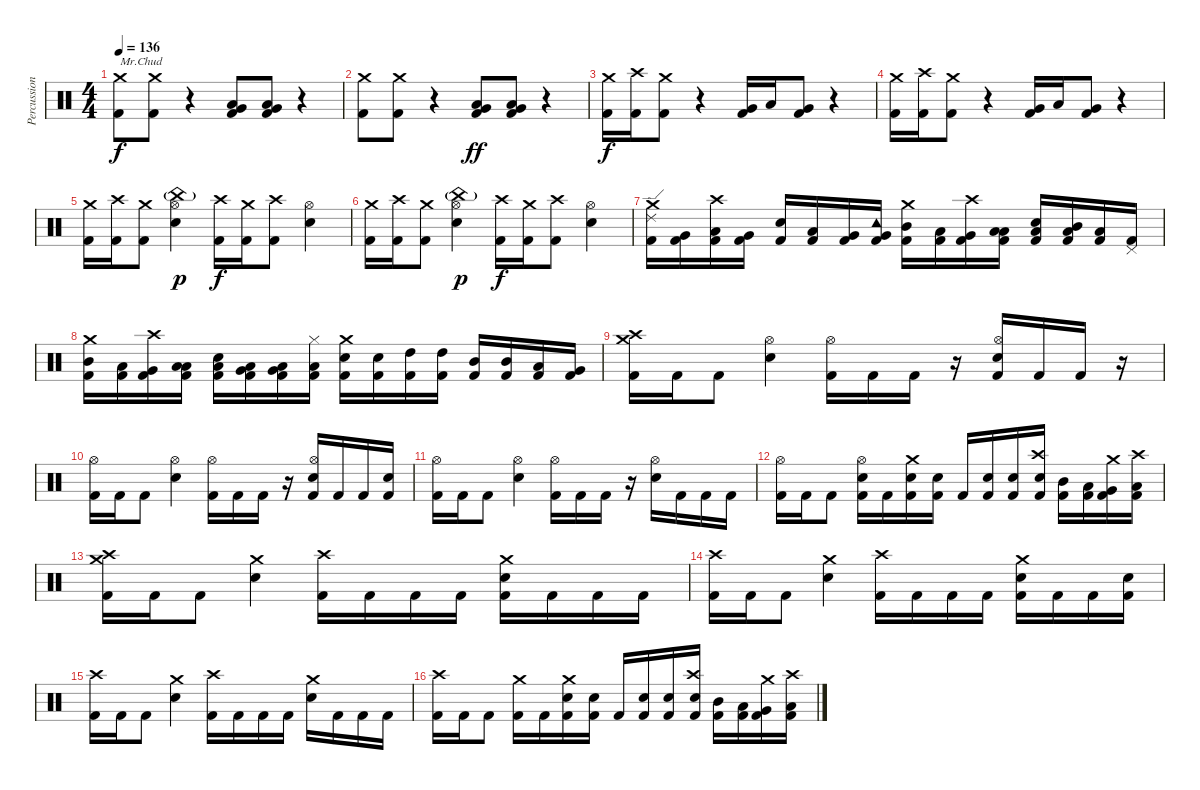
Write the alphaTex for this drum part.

\track ("Percussion" "Percussion") {instrument percussion}
\staff {score}
\articulation defaults
\ts (4 4)
\tempo 136
\clef neutral
\ks c
("Crash medium (hit)" "Kick (hit) 2").8{txt "Mr.Chud" dy f} ("Crash medium (hit)" "Kick (hit) 2").8 r.4 ("Low Tom (hit)" "Very Low Tom (hit)" "Kick (hit) 2").8 ("Low Tom (hit)" "Very Low Tom (hit)" "Kick (hit) 2").8 r.4 |
("Crash medium (hit)" "Kick (hit) 2").8 ("Crash medium (hit)" "Kick (hit) 2").8 r.4 ("Very Low Tom (hit)" "Low Floor Tom (hit)" "Kick (hit) 2").8{dy ff} ("Very Low Tom (hit)" "Low Floor Tom (hit)" "Kick (hit) 2").8 r.4 |
("Crash medium (hit)" "Kick (hit) 2").16{dy f} ("Crash high (hit)" "Kick (hit) 2").16 ("Crash medium (hit)" "Kick (hit) 2").8 r.4 ("Very Low Tom (hit)" "Kick (hit) 2").16 "Low Tom (hit)".16 ("Very Low Tom (hit)" "Kick (hit) 2").8 r.4 |
("Crash medium (hit)" "Kick (hit) 2").16 ("Crash high (hit)" "Kick (hit) 2").16 ("Crash medium (hit)" "Kick (hit) 2").8 r.4 ("Very Low Tom (hit)" "Kick (hit) 2").16 "Low Floor Tom (hit)".16 ("Very Low Tom (hit)" "Kick (hit) 2").8 r.4 |
("Crash medium (hit)" "Kick (hit) 2").16 ("Crash high (hit)" "Kick (hit) 2").16 ("Crash medium (hit)" "Kick (hit) 2").8 ("Hi-Hat (open)" "China (hit)"{g} "Electric Snare (hit)").4{dy p} ("Crash high (hit)" "Kick (hit) 2").16{dy f} ("Crash medium (hit)" "Kick (hit) 2").16 ("Crash high (hit)" "Kick (hit) 2").8 ("Hi-Hat (open)" "Electric Snare (hit)").4 |
("Crash medium (hit)" "Kick (hit) 2").16 ("Crash high (hit)" "Kick (hit) 2").16 ("Crash medium (hit)" "Kick (hit) 2").8 ("Hi-Hat (open)" "China (hit)"{g} "Electric Snare (hit)").4{dy p} ("Crash high (hit)" "Kick (hit) 2").16{dy f} ("Crash medium (hit)" "Kick (hit) 2").16 ("Crash high (hit)" "Kick (hit) 2").8 ("Hi-Hat (open)" "Electric Snare (hit)").4 |
("Crash medium (hit)" "Ride (edge) 2" "Kick (hit) 2").16 ("Very Low Tom (hit)" "Kick (hit) 2").16 ("Crash high (hit)" "Low Tom (hit)" "Kick (hit) 2").16 ("Very Low Tom (hit)" "Kick (hit) 2").16 ("Electric Snare (hit)" "Kick (hit) 2").16 ("Low Tom (hit)" "Kick (hit) 2").16 ("Very Low Tom (hit)" "Kick (hit) 2").16 ("Tambourine (hit)" "Very Low Tom (hit)" "Kick (hit) 2").16 ("Crash medium (hit)" "Mid Tom (hit)" "Kick (hit) 2").16 ("Low Tom (hit)" "Kick (hit) 2").16 ("Crash high (hit)" "Very Low Tom (hit)" "Kick (hit) 2").16 ("Low Floor Tom (hit)" "Low Tom (hit)" "Kick (hit) 2").16 ("Low Floor Tom (hit)" "Electric Snare (hit)" "Kick (hit) 2").16 ("Low Floor Tom (hit)" "Mid Tom (hit)" "Kick (hit) 2").16 ("Low Floor Tom (hit)" "Kick (hit) 2").16 ("Pedal Hi-Hat (hit)" "Kick (hit) 2").16 |
("Crash medium (hit)" "Mid Tom (hit)" "Kick (hit) 2").16 ("Low Tom (hit)" "Kick (hit) 2").16 ("Crash high (hit)" "Very Low Tom (hit)" "Kick (hit) 2").16 ("Low Floor Tom (hit)" "Low Tom (hit)" "Kick (hit) 2").16 ("Low Floor Tom (hit)" "Electric Snare (hit)" "Kick (hit) 2").16 ("Low Floor Tom (hit)" "Very Low Tom (hit)" "Kick (hit) 2").16 ("Low Floor Tom (hit)" "Very Low Tom (hit)" "Kick (hit) 2").16 ("Hi-Hat (closed)" "Low Floor Tom (hit)" "Kick (hit) 2").16 ("Crash medium (hit)" "Electric Snare (hit)" "Kick (hit) 2").16 ("Electric Snare (hit)" "Kick (hit) 2").16 ("High Tom (hit)" "Kick (hit) 2").16 ("High Tom (hit)" "Kick (hit) 2").16 ("Mid Tom (hit)" "Kick (hit) 2").16 ("Mid Tom (hit)" "Kick (hit) 2").16 ("Low Tom (hit)" "Kick (hit) 2").16 ("Very Low Tom (hit)" "Kick (hit) 2").16 |
("Crash medium (hit)" "Crash high (hit)" "Kick (hit) 2").16 "Kick (hit) 2".16 "Kick (hit) 2".8 ("Hi-Hat (open)" "Electric Snare (hit)").4 ("Hi-Hat (open)" "Kick (hit) 2").16 "Kick (hit) 2".16 "Kick (hit) 2".16 r.16 ("Hi-Hat (open)" "Electric Snare (hit)" "Kick (hit) 2").16 "Kick (hit) 2".16 "Kick (hit) 2".16 r.16 |
("Hi-Hat (open)" "Kick (hit) 2").16 "Kick (hit) 2".16 "Kick (hit) 2".8 ("Hi-Hat (open)" "Electric Snare (hit)").4 ("Hi-Hat (open)" "Kick (hit) 2").16 "Kick (hit) 2".16 "Kick (hit) 2".16 r.16 ("Hi-Hat (open)" "Electric Snare (hit)" "Kick (hit) 2").16 "Kick (hit) 2".16 "Kick (hit) 2".16 ("Electric Snare (hit)" "Kick (hit) 2").16 |
("Hi-Hat (open)" "Kick (hit) 2").16 "Kick (hit) 2".16 "Kick (hit) 2".8 ("Hi-Hat (open)" "Electric Snare (hit)").4 ("Hi-Hat (open)" "Kick (hit) 2").16 "Kick (hit) 2".16 "Kick (hit) 2".16 r.16 ("Hi-Hat (open)" "Electric Snare (hit)").16 "Kick (hit) 2".16 "Kick (hit) 2".16 "Kick (hit) 2".16 |
("Hi-Hat (open)" "Kick (hit) 2").16 "Kick (hit) 2".16 "Kick (hit) 2".8 ("Hi-Hat (open)" "Electric Snare (hit)" "Kick (hit) 2").16 "Kick (hit) 2".16 ("Crash medium (hit)" "Electric Snare (hit)" "Kick (hit) 2").16 ("Electric Snare (hit)" "Kick (hit) 2").16 "Kick (hit) 2".16 ("Snare (hit) 2" "Kick (hit) 2").16 ("Electric Snare (hit)" "Kick (hit) 2").16 ("Crash high (hit)" "Electric Snare (hit)" "Kick (hit) 2").16 ("Mid Tom (hit)" "Kick (hit) 2").16 ("Low Tom (hit)" "Kick (hit) 2").16 ("Crash medium (hit)" "Very Low Tom (hit)" "Kick (hit) 2").16 ("Crash high (hit)" "Low Floor Tom (hit)" "Kick (hit) 2").16 |
("Crash medium (hit)" "Crash high (hit)" "Kick (hit) 2").16 "Kick (hit) 2".16 "Kick (hit) 2".8 ("Crash medium (hit)" "Electric Snare (hit)").4 ("Crash high (hit)" "Kick (hit) 2").16 "Kick (hit) 2".16 "Kick (hit) 2".16 "Kick (hit) 2".16 ("Crash medium (hit)" "Electric Snare (hit)" "Kick (hit) 2").16 "Kick (hit) 2".16 "Kick (hit) 2".16 "Kick (hit) 2".16 |
("Crash high (hit)" "Kick (hit) 2").16 "Kick (hit) 2".16 "Kick (hit) 2".8 ("Crash medium (hit)" "Electric Snare (hit)").4 ("Crash high (hit)" "Kick (hit) 2").16 "Kick (hit) 2".16 "Kick (hit) 2".16 "Kick (hit) 2".16 ("Crash medium (hit)" "Electric Snare (hit)" "Kick (hit) 2").16 "Kick (hit) 2".16 "Kick (hit) 2".16 ("Electric Snare (hit)" "Kick (hit) 2").16 |
("Crash high (hit)" "Kick (hit) 2").16 "Kick (hit) 2".16 "Kick (hit) 2".8 ("Crash medium (hit)" "Electric Snare (hit)").4 ("Crash high (hit)" "Kick (hit) 2").16 "Kick (hit) 2".16 "Kick (hit) 2".16 "Kick (hit) 2".16 ("Crash medium (hit)" "Electric Snare (hit)").16 "Kick (hit) 2".16 "Kick (hit) 2".16 "Kick (hit) 2".16 |
("Crash high (hit)" "Kick (hit) 2").16 "Kick (hit) 2".16 "Kick (hit) 2".8 ("Crash medium (hit)" "Kick (hit) 2").16 "Kick (hit) 2".16 ("Crash medium (hit)" "Electric Snare (hit)" "Kick (hit) 2").16 ("Electric Snare (hit)" "Kick (hit) 2").16 "Kick (hit) 2".16 ("Snare (hit) 2" "Kick (hit) 2").16 ("Electric Snare (hit)" "Kick (hit) 2").16 ("Crash high (hit)" "Electric Snare (hit)" "Kick (hit) 2").16 ("Mid Tom (hit)" "Kick (hit) 2").16 ("Low Tom (hit)" "Kick (hit) 2").16 ("Crash medium (hit)" "Very Low Tom (hit)" "Kick (hit) 2").16 ("Crash high (hit)" "Low Floor Tom (hit)" "Kick (hit) 2").16
